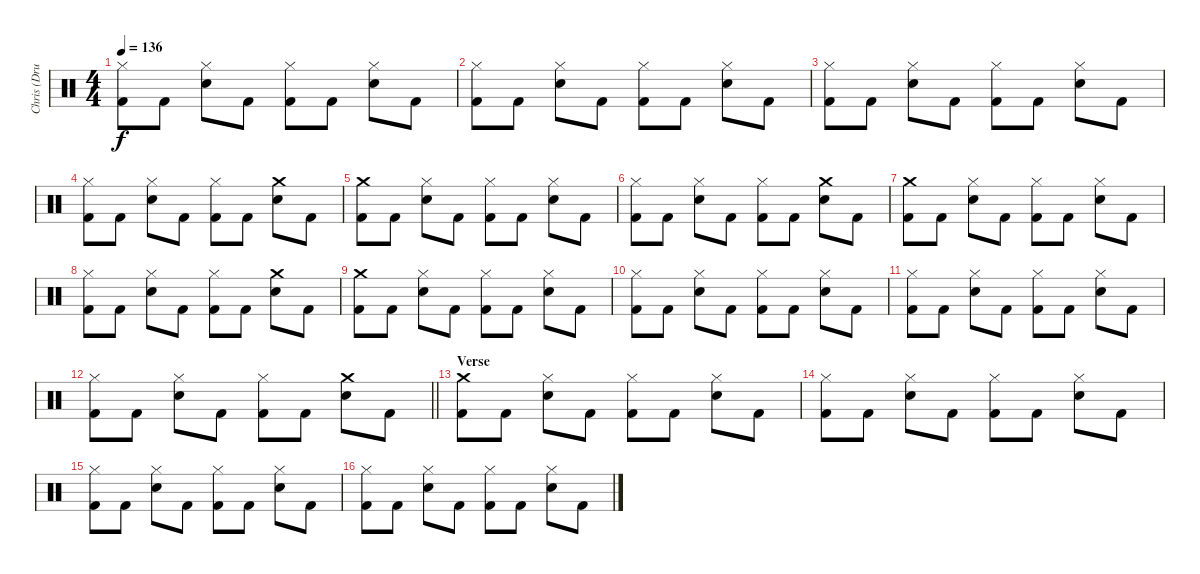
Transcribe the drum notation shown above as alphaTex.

\track ("Chris (Drums)" "Chris (Dru") {instrument percussion}
\staff {score}
\articulation defaults
\ts (4 4)
\tempo 136
\clef neutral
\ks c
("Hi-Hat (closed)" "Kick (hit) 2").8{dy f} "Kick (hit) 2".8 ("Hi-Hat (closed)" "Snare (hit) 2").8 "Kick (hit) 2".8 ("Hi-Hat (closed)" "Kick (hit) 2").8 "Kick (hit) 2".8 ("Hi-Hat (closed)" "Snare (hit) 2").8 "Kick (hit) 2".8 |
("Hi-Hat (closed)" "Kick (hit) 2").8 "Kick (hit) 2".8 ("Hi-Hat (closed)" "Snare (hit) 2").8 "Kick (hit) 2".8 ("Hi-Hat (closed)" "Kick (hit) 2").8 "Kick (hit) 2".8 ("Hi-Hat (closed)" "Snare (hit) 2").8 "Kick (hit) 2".8 |
("Hi-Hat (closed)" "Kick (hit) 2").8 "Kick (hit) 2".8 ("Hi-Hat (closed)" "Snare (hit) 2").8 "Kick (hit) 2".8 ("Hi-Hat (closed)" "Kick (hit) 2").8 "Kick (hit) 2".8 ("Hi-Hat (closed)" "Snare (hit) 2").8 "Kick (hit) 2".8 |
("Hi-Hat (closed)" "Kick (hit) 2").8 "Kick (hit) 2".8 ("Hi-Hat (closed)" "Snare (hit) 2").8 "Kick (hit) 2".8 ("Hi-Hat (closed)" "Kick (hit) 2").8 "Kick (hit) 2".8 ("Crash medium (hit)" "Snare (hit) 2").8 "Kick (hit) 2".8 |
("Crash medium (hit)" "Kick (hit) 2").8 "Kick (hit) 2".8 ("Hi-Hat (closed)" "Snare (hit) 2").8 "Kick (hit) 2".8 ("Hi-Hat (closed)" "Kick (hit) 2").8 "Kick (hit) 2".8 ("Hi-Hat (closed)" "Snare (hit) 2").8 "Kick (hit) 2".8 |
("Hi-Hat (closed)" "Kick (hit) 2").8 "Kick (hit) 2".8 ("Hi-Hat (closed)" "Snare (hit) 2").8 "Kick (hit) 2".8 ("Hi-Hat (closed)" "Kick (hit) 2").8 "Kick (hit) 2".8 ("Crash medium (hit)" "Snare (hit) 2").8 "Kick (hit) 2".8 |
("Crash medium (hit)" "Kick (hit) 2").8 "Kick (hit) 2".8 ("Hi-Hat (closed)" "Snare (hit) 2").8 "Kick (hit) 2".8 ("Hi-Hat (closed)" "Kick (hit) 2").8 "Kick (hit) 2".8 ("Hi-Hat (closed)" "Snare (hit) 2").8 "Kick (hit) 2".8 |
("Hi-Hat (closed)" "Kick (hit) 2").8 "Kick (hit) 2".8 ("Hi-Hat (closed)" "Snare (hit) 2").8 "Kick (hit) 2".8 ("Hi-Hat (closed)" "Kick (hit) 2").8 "Kick (hit) 2".8 ("Crash medium (hit)" "Snare (hit) 2").8 "Kick (hit) 2".8 |
("Crash medium (hit)" "Kick (hit) 2").8 "Kick (hit) 2".8 ("Hi-Hat (closed)" "Snare (hit) 2").8 "Kick (hit) 2".8 ("Hi-Hat (closed)" "Kick (hit) 2").8 "Kick (hit) 2".8 ("Hi-Hat (closed)" "Snare (hit) 2").8 "Kick (hit) 2".8 |
("Hi-Hat (closed)" "Kick (hit) 2").8 "Kick (hit) 2".8 ("Hi-Hat (closed)" "Snare (hit) 2").8 "Kick (hit) 2".8 ("Hi-Hat (closed)" "Kick (hit) 2").8 "Kick (hit) 2".8 ("Hi-Hat (closed)" "Snare (hit) 2").8 "Kick (hit) 2".8 |
("Hi-Hat (closed)" "Kick (hit) 2").8 "Kick (hit) 2".8 ("Hi-Hat (closed)" "Snare (hit) 2").8 "Kick (hit) 2".8 ("Hi-Hat (closed)" "Kick (hit) 2").8 "Kick (hit) 2".8 ("Hi-Hat (closed)" "Snare (hit) 2").8 "Kick (hit) 2".8 |
\barLineRight lightlight
("Hi-Hat (closed)" "Kick (hit) 2").8 "Kick (hit) 2".8 ("Hi-Hat (closed)" "Snare (hit) 2").8 "Kick (hit) 2".8 ("Hi-Hat (closed)" "Kick (hit) 2").8 "Kick (hit) 2".8 ("Crash medium (hit)" "Snare (hit) 2").8 "Kick (hit) 2".8 |
\section ("" "Verse")
("Crash medium (hit)" "Kick (hit) 2").8 "Kick (hit) 2".8 ("Hi-Hat (closed)" "Snare (hit) 2").8 "Kick (hit) 2".8 ("Hi-Hat (closed)" "Kick (hit) 2").8 "Kick (hit) 2".8 ("Hi-Hat (closed)" "Snare (hit) 2").8 "Kick (hit) 2".8 |
("Hi-Hat (closed)" "Kick (hit) 2").8 "Kick (hit) 2".8 ("Hi-Hat (closed)" "Snare (hit) 2").8 "Kick (hit) 2".8 ("Hi-Hat (closed)" "Kick (hit) 2").8 "Kick (hit) 2".8 ("Hi-Hat (closed)" "Snare (hit) 2").8 "Kick (hit) 2".8 |
("Hi-Hat (closed)" "Kick (hit) 2").8 "Kick (hit) 2".8 ("Hi-Hat (closed)" "Snare (hit) 2").8 "Kick (hit) 2".8 ("Hi-Hat (closed)" "Kick (hit) 2").8 "Kick (hit) 2".8 ("Hi-Hat (closed)" "Snare (hit) 2").8 "Kick (hit) 2".8 |
("Hi-Hat (closed)" "Kick (hit) 2").8 "Kick (hit) 2".8 ("Hi-Hat (closed)" "Snare (hit) 2").8 "Kick (hit) 2".8 ("Hi-Hat (closed)" "Kick (hit) 2").8 "Kick (hit) 2".8 ("Hi-Hat (closed)" "Snare (hit) 2").8 "Kick (hit) 2".8
